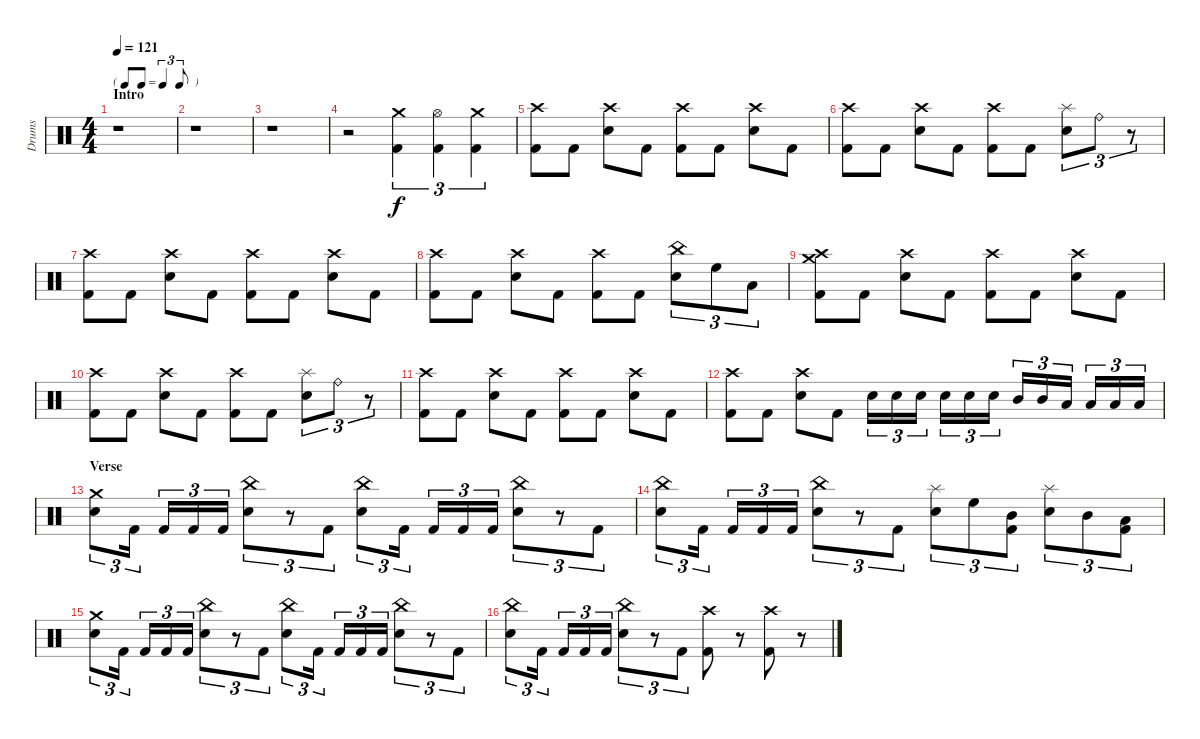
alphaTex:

\track ("Drums" "Drums") {instrument percussion}
\staff {score}
\articulation defaults
\ts (4 4)
\tf triplet8th
\section ("" "Intro")
\tempo 121
\clef neutral
\ks c
r.1{dy f} |
r.1 |
r.1 |
r.2 ("Crash medium (hit)" "Kick (hit) 2").4{tu (3 2)} ("Hi-Hat (open)" "Kick (hit) 2").4{tu (3 2)} ("Crash medium (hit)" "Kick (hit) 2").4{tu (3 2)} |
("Crash high (hit)" "Kick (hit) 2").8 "Kick (hit) 2".8 ("Crash high (hit)" "Electric Snare (hit)").8 "Kick (hit) 2".8 ("Crash high (hit)" "Kick (hit) 2").8 "Kick (hit) 2".8 ("Crash high (hit)" "Electric Snare (hit)").8 "Kick (hit) 2".8 |
("Crash high (hit)" "Kick (hit) 2").8 "Kick (hit) 2".8 ("Crash high (hit)" "Electric Snare (hit)").8 "Kick (hit) 2".8 ("Crash high (hit)" "Kick (hit) 2").8 "Kick (hit) 2".8 ("Splash (hit)" "Electric Snare (hit)").8{tu (3 2)} "Ride (bell)".8{tu (3 2)} r.8{tu (3 2)} |
("Crash high (hit)" "Kick (hit) 2").8 "Kick (hit) 2".8 ("Crash high (hit)" "Electric Snare (hit)").8 "Kick (hit) 2".8 ("Crash high (hit)" "Kick (hit) 2").8 "Kick (hit) 2".8 ("Crash high (hit)" "Electric Snare (hit)").8 "Kick (hit) 2".8 |
("Crash high (hit)" "Kick (hit) 2").8 "Kick (hit) 2".8 ("Crash high (hit)" "Electric Snare (hit)").8 "Kick (hit) 2".8 ("Crash high (hit)" "Kick (hit) 2").8 "Kick (hit) 2".8 ("China (hit)" "Electric Snare (hit)").8{tu (3 2)} "High Floor Tom (hit)".8{tu (3 2)} "Low Tom (hit)".8{tu (3 2)} |
("Crash high (hit)" "Crash medium (hit)" "Kick (hit) 2").8 "Kick (hit) 2".8 ("Crash high (hit)" "Electric Snare (hit)").8 "Kick (hit) 2".8 ("Crash high (hit)" "Kick (hit) 2").8 "Kick (hit) 2".8 ("Crash high (hit)" "Electric Snare (hit)").8 "Kick (hit) 2".8 |
("Crash high (hit)" "Kick (hit) 2").8 "Kick (hit) 2".8 ("Crash high (hit)" "Electric Snare (hit)").8 "Kick (hit) 2".8 ("Crash high (hit)" "Kick (hit) 2").8 "Kick (hit) 2".8 ("Splash (hit)" "Electric Snare (hit)").8{tu (3 2)} "Ride (bell)".8{tu (3 2)} r.8{tu (3 2)} |
("Crash high (hit)" "Kick (hit) 2").8 "Kick (hit) 2".8 ("Crash high (hit)" "Electric Snare (hit)").8 "Kick (hit) 2".8 ("Crash high (hit)" "Kick (hit) 2").8 "Kick (hit) 2".8 ("Crash high (hit)" "Electric Snare (hit)").8 "Kick (hit) 2".8 |
("Crash high (hit)" "Kick (hit) 2").8 "Kick (hit) 2".8 ("Crash high (hit)" "Electric Snare (hit)").8 "Kick (hit) 2".8 "Electric Snare (hit)".16{tu (3 2)} "Electric Snare (hit)".16{tu (3 2)} "Electric Snare (hit)".16{tu (3 2)} "Electric Snare (hit)".16{tu (3 2)} "Electric Snare (hit)".16{tu (3 2)} "Electric Snare (hit)".16{tu (3 2)} "Mid Tom (hit)".16{tu (3 2)} "Mid Tom (hit)".16{tu (3 2)} "Low Tom (hit)".16{tu (3 2)} "Low Tom (hit)".16{tu (3 2)} "Low Floor Tom (hit)".16{tu (3 2)} "Low Floor Tom (hit)".16{tu (3 2)} |
\section ("" "Verse")
("Crash medium (hit)" "Electric Snare (hit)").8{tu (3 2)} "Kick (hit) 2".16{tu (3 2)} "Kick (hit) 2".16{tu (3 2)} "Kick (hit) 2".16{tu (3 2)} "Kick (hit) 2".16{tu (3 2)} ("China (hit)" "Electric Snare (hit)").8{tu (3 2)} r.8{tu (3 2)} "Kick (hit) 2".8{tu (3 2)} ("China (hit)" "Electric Snare (hit)").8{tu (3 2)} "Kick (hit) 2".16{tu (3 2)} "Kick (hit) 2".16{tu (3 2)} "Kick (hit) 2".16{tu (3 2)} "Kick (hit) 2".16{tu (3 2)} ("China (hit)" "Electric Snare (hit)").8{tu (3 2)} r.8{tu (3 2)} "Kick (hit) 2".8{tu (3 2)} |
("China (hit)" "Electric Snare (hit)").8{tu (3 2)} "Kick (hit) 2".16{tu (3 2)} "Kick (hit) 2".16{tu (3 2)} "Kick (hit) 2".16{tu (3 2)} "Kick (hit) 2".16{tu (3 2)} ("China (hit)" "Electric Snare (hit)").8{tu (3 2)} r.8{tu (3 2)} "Kick (hit) 2".8{tu (3 2)} ("Splash (hit)" "Electric Snare (hit)").8{tu (3 2)} "High Floor Tom (hit)".8{tu (3 2)} ("Mid Tom (hit)" "Kick (hit) 2").8{tu (3 2)} ("Splash (hit)" "Electric Snare (hit)").8{tu (3 2)} "Mid Tom (hit)".8{tu (3 2)} ("Low Tom (hit)" "Kick (hit) 2").8{tu (3 2)} |
("Crash medium (hit)" "Electric Snare (hit)").8{tu (3 2)} "Kick (hit) 2".16{tu (3 2)} "Kick (hit) 2".16{tu (3 2)} "Kick (hit) 2".16{tu (3 2)} "Kick (hit) 2".16{tu (3 2)} ("China (hit)" "Electric Snare (hit)").8{tu (3 2)} r.8{tu (3 2)} "Kick (hit) 2".8{tu (3 2)} ("China (hit)" "Electric Snare (hit)").8{tu (3 2)} "Kick (hit) 2".16{tu (3 2)} "Kick (hit) 2".16{tu (3 2)} "Kick (hit) 2".16{tu (3 2)} "Kick (hit) 2".16{tu (3 2)} ("China (hit)" "Electric Snare (hit)").8{tu (3 2)} r.8{tu (3 2)} "Kick (hit) 2".8{tu (3 2)} |
("China (hit)" "Electric Snare (hit)").8{tu (3 2)} "Kick (hit) 2".16{tu (3 2)} "Kick (hit) 2".16{tu (3 2)} "Kick (hit) 2".16{tu (3 2)} "Kick (hit) 2".16{tu (3 2)} ("China (hit)" "Electric Snare (hit)").8{tu (3 2)} r.8{tu (3 2)} "Kick (hit) 2".8{tu (3 2)} ("Crash high (hit)" "Kick (hit) 2").8 r.8{volume 0} ("Crash high (hit)" "Kick (hit) 2").8{volume 15} r.8{volume 0}
